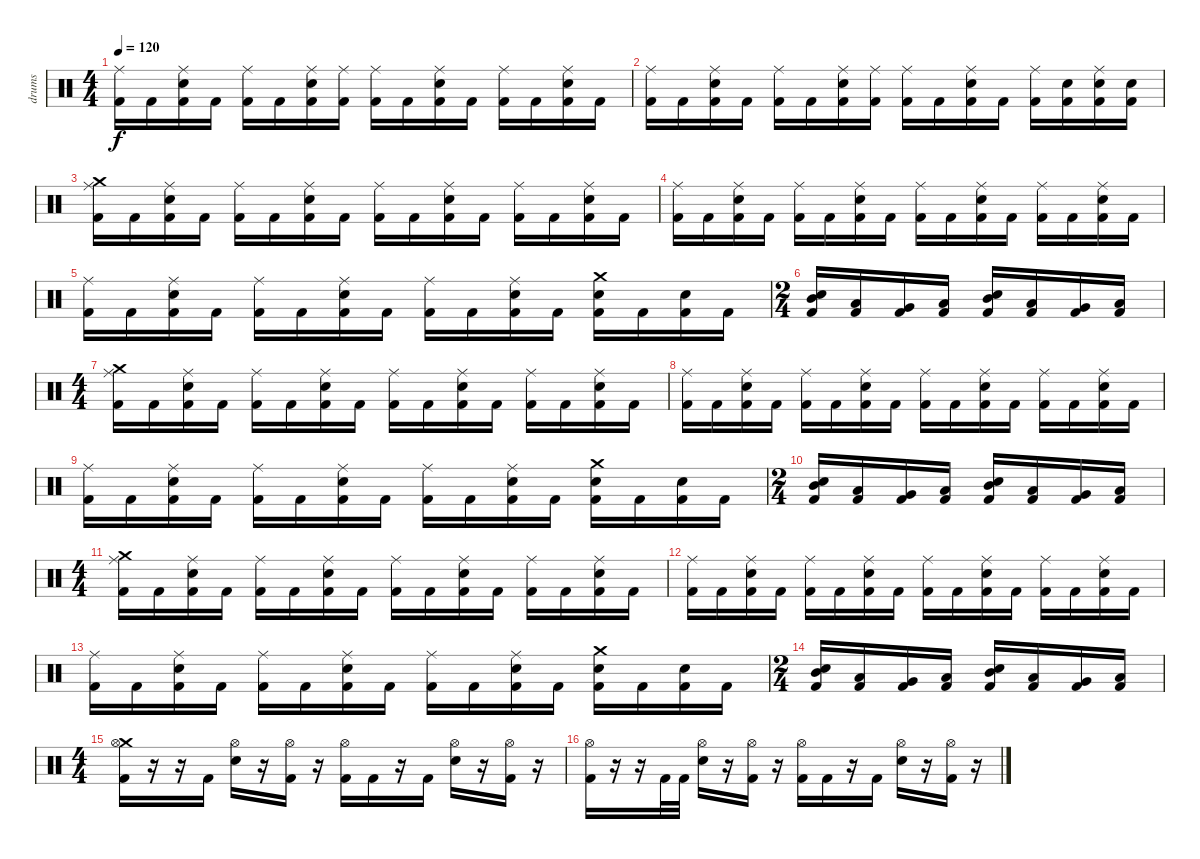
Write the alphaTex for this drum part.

\track ("drums" "drums") {instrument percussion}
\staff {score}
\articulation defaults
\ts (4 4)
\tempo 120
\clef neutral
\ks c
("Ride (middle)" "Kick (hit) 2").16{dy f} "Kick (hit) 2".16 ("Ride (middle)" "Electric Snare (hit)" "Kick (hit) 2").16 "Kick (hit) 2".16 ("Ride (middle)" "Kick (hit) 2").16 "Kick (hit) 2".16 ("Ride (middle)" "Electric Snare (hit)" "Kick (hit) 2").16 ("Ride (middle)" "Kick (hit) 2").16 ("Ride (middle)" "Kick (hit) 2").16 "Kick (hit) 2".16 ("Ride (middle)" "Electric Snare (hit)" "Kick (hit) 2").16 "Kick (hit) 2".16 ("Ride (middle)" "Kick (hit) 2").16 "Kick (hit) 2".16 ("Ride (middle)" "Electric Snare (hit)" "Kick (hit) 2").16 "Kick (hit) 2".16 |
("Ride (middle)" "Kick (hit) 2").16 "Kick (hit) 2".16 ("Ride (middle)" "Electric Snare (hit)" "Kick (hit) 2").16 "Kick (hit) 2".16 ("Ride (middle)" "Kick (hit) 2").16 "Kick (hit) 2".16 ("Ride (middle)" "Electric Snare (hit)" "Kick (hit) 2").16 ("Ride (middle)" "Kick (hit) 2").16 ("Ride (middle)" "Kick (hit) 2").16 "Kick (hit) 2".16 ("Ride (middle)" "Electric Snare (hit)" "Kick (hit) 2").16 "Kick (hit) 2".16 ("Ride (middle)" "Kick (hit) 2").16 ("Electric Snare (hit)" "Kick (hit) 2").16 ("Ride (middle)" "Electric Snare (hit)" "Kick (hit) 2").16 ("Electric Snare (hit)" "Kick (hit) 2").16 |
("Crash medium (hit)" "Ride (middle)" "Kick (hit) 2").16 "Kick (hit) 2".16 ("Ride (middle)" "Electric Snare (hit)" "Kick (hit) 2").16 "Kick (hit) 2".16 ("Ride (middle)" "Kick (hit) 2").16 "Kick (hit) 2".16 ("Ride (middle)" "Electric Snare (hit)" "Kick (hit) 2").16 "Kick (hit) 2".16 ("Ride (middle)" "Kick (hit) 2").16 "Kick (hit) 2".16 ("Ride (middle)" "Electric Snare (hit)" "Kick (hit) 2").16 "Kick (hit) 2".16 ("Ride (middle)" "Kick (hit) 2").16 "Kick (hit) 2".16 ("Ride (middle)" "Electric Snare (hit)" "Kick (hit) 2").16 "Kick (hit) 2".16 |
("Ride (middle)" "Kick (hit) 2").16 "Kick (hit) 2".16 ("Ride (middle)" "Electric Snare (hit)" "Kick (hit) 2").16 "Kick (hit) 2".16 ("Ride (middle)" "Kick (hit) 2").16 "Kick (hit) 2".16 ("Ride (middle)" "Electric Snare (hit)" "Kick (hit) 2").16 "Kick (hit) 2".16 ("Ride (middle)" "Kick (hit) 2").16 "Kick (hit) 2".16 ("Ride (middle)" "Electric Snare (hit)" "Kick (hit) 2").16 "Kick (hit) 2".16 ("Ride (middle)" "Kick (hit) 2").16 "Kick (hit) 2".16 ("Ride (middle)" "Electric Snare (hit)" "Kick (hit) 2").16 "Kick (hit) 2".16 |
("Ride (middle)" "Kick (hit) 2").16 "Kick (hit) 2".16 ("Ride (middle)" "Electric Snare (hit)" "Kick (hit) 2").16 "Kick (hit) 2".16 ("Ride (middle)" "Kick (hit) 2").16 "Kick (hit) 2".16 ("Ride (middle)" "Electric Snare (hit)" "Kick (hit) 2").16 "Kick (hit) 2".16 ("Ride (middle)" "Kick (hit) 2").16 "Kick (hit) 2".16 ("Ride (middle)" "Electric Snare (hit)" "Kick (hit) 2").16 "Kick (hit) 2".16 ("Crash medium (hit)" "Electric Snare (hit)" "Kick (hit) 2").16 "Kick (hit) 2".16 ("Electric Snare (hit)" "Kick (hit) 2").16 "Kick (hit) 2".16 |
\ts (2 4)
("Mid Tom (hit)" "Electric Snare (hit)" "Kick (hit) 2").16 ("Low Tom (hit)" "Kick (hit) 2").16 ("Very Low Tom (hit)" "Kick (hit) 2").16 ("Low Floor Tom (hit)" "Kick (hit) 2").16 ("Mid Tom (hit)" "Electric Snare (hit)" "Kick (hit) 2").16 ("Low Tom (hit)" "Kick (hit) 2").16 ("Very Low Tom (hit)" "Kick (hit) 2").16 ("Low Floor Tom (hit)" "Kick (hit) 2").16 |
\ts (4 4)
("Crash medium (hit)" "Ride (middle)" "Kick (hit) 2").16 "Kick (hit) 2".16 ("Ride (middle)" "Electric Snare (hit)" "Kick (hit) 2").16 "Kick (hit) 2".16 ("Ride (middle)" "Kick (hit) 2").16 "Kick (hit) 2".16 ("Ride (middle)" "Electric Snare (hit)" "Kick (hit) 2").16 "Kick (hit) 2".16 ("Ride (middle)" "Kick (hit) 2").16 "Kick (hit) 2".16 ("Ride (middle)" "Electric Snare (hit)" "Kick (hit) 2").16 "Kick (hit) 2".16 ("Ride (middle)" "Kick (hit) 2").16 "Kick (hit) 2".16 ("Ride (middle)" "Electric Snare (hit)" "Kick (hit) 2").16 "Kick (hit) 2".16 |
("Ride (middle)" "Kick (hit) 2").16 "Kick (hit) 2".16 ("Ride (middle)" "Electric Snare (hit)" "Kick (hit) 2").16 "Kick (hit) 2".16 ("Ride (middle)" "Kick (hit) 2").16 "Kick (hit) 2".16 ("Ride (middle)" "Electric Snare (hit)" "Kick (hit) 2").16 "Kick (hit) 2".16 ("Ride (middle)" "Kick (hit) 2").16 "Kick (hit) 2".16 ("Ride (middle)" "Electric Snare (hit)" "Kick (hit) 2").16 "Kick (hit) 2".16 ("Ride (middle)" "Kick (hit) 2").16 "Kick (hit) 2".16 ("Ride (middle)" "Electric Snare (hit)" "Kick (hit) 2").16 "Kick (hit) 2".16 |
("Ride (middle)" "Kick (hit) 2").16 "Kick (hit) 2".16 ("Ride (middle)" "Electric Snare (hit)" "Kick (hit) 2").16 "Kick (hit) 2".16 ("Ride (middle)" "Kick (hit) 2").16 "Kick (hit) 2".16 ("Ride (middle)" "Electric Snare (hit)" "Kick (hit) 2").16 "Kick (hit) 2".16 ("Ride (middle)" "Kick (hit) 2").16 "Kick (hit) 2".16 ("Ride (middle)" "Electric Snare (hit)" "Kick (hit) 2").16 "Kick (hit) 2".16 ("Crash medium (hit)" "Electric Snare (hit)" "Kick (hit) 2").16 "Kick (hit) 2".16 ("Electric Snare (hit)" "Kick (hit) 2").16 "Kick (hit) 2".16 |
\ts (2 4)
("Mid Tom (hit)" "Electric Snare (hit)" "Kick (hit) 2").16 ("Low Tom (hit)" "Kick (hit) 2").16 ("Very Low Tom (hit)" "Kick (hit) 2").16 ("Low Floor Tom (hit)" "Kick (hit) 2").16 ("Mid Tom (hit)" "Electric Snare (hit)" "Kick (hit) 2").16 ("Low Tom (hit)" "Kick (hit) 2").16 ("Very Low Tom (hit)" "Kick (hit) 2").16 ("Low Floor Tom (hit)" "Kick (hit) 2").16 |
\ts (4 4)
("Crash medium (hit)" "Ride (middle)" "Kick (hit) 2").16 "Kick (hit) 2".16 ("Ride (middle)" "Electric Snare (hit)" "Kick (hit) 2").16 "Kick (hit) 2".16 ("Ride (middle)" "Kick (hit) 2").16 "Kick (hit) 2".16 ("Ride (middle)" "Electric Snare (hit)" "Kick (hit) 2").16 "Kick (hit) 2".16 ("Ride (middle)" "Kick (hit) 2").16 "Kick (hit) 2".16 ("Ride (middle)" "Electric Snare (hit)" "Kick (hit) 2").16 "Kick (hit) 2".16 ("Ride (middle)" "Kick (hit) 2").16 "Kick (hit) 2".16 ("Ride (middle)" "Electric Snare (hit)" "Kick (hit) 2").16 "Kick (hit) 2".16 |
("Ride (middle)" "Kick (hit) 2").16 "Kick (hit) 2".16 ("Ride (middle)" "Electric Snare (hit)" "Kick (hit) 2").16 "Kick (hit) 2".16 ("Ride (middle)" "Kick (hit) 2").16 "Kick (hit) 2".16 ("Ride (middle)" "Electric Snare (hit)" "Kick (hit) 2").16 "Kick (hit) 2".16 ("Ride (middle)" "Kick (hit) 2").16 "Kick (hit) 2".16 ("Ride (middle)" "Electric Snare (hit)" "Kick (hit) 2").16 "Kick (hit) 2".16 ("Ride (middle)" "Kick (hit) 2").16 "Kick (hit) 2".16 ("Ride (middle)" "Electric Snare (hit)" "Kick (hit) 2").16 "Kick (hit) 2".16 |
("Ride (middle)" "Kick (hit) 2").16 "Kick (hit) 2".16 ("Ride (middle)" "Electric Snare (hit)" "Kick (hit) 2").16 "Kick (hit) 2".16 ("Ride (middle)" "Kick (hit) 2").16 "Kick (hit) 2".16 ("Ride (middle)" "Electric Snare (hit)" "Kick (hit) 2").16 "Kick (hit) 2".16 ("Ride (middle)" "Kick (hit) 2").16 "Kick (hit) 2".16 ("Ride (middle)" "Electric Snare (hit)" "Kick (hit) 2").16 "Kick (hit) 2".16 ("Crash medium (hit)" "Electric Snare (hit)" "Kick (hit) 2").16 "Kick (hit) 2".16 ("Electric Snare (hit)" "Kick (hit) 2").16 "Kick (hit) 2".16 |
\ts (2 4)
("Mid Tom (hit)" "Electric Snare (hit)" "Kick (hit) 2").16 ("Low Tom (hit)" "Kick (hit) 2").16 ("Very Low Tom (hit)" "Kick (hit) 2").16 ("Low Floor Tom (hit)" "Kick (hit) 2").16 ("Mid Tom (hit)" "Electric Snare (hit)" "Kick (hit) 2").16 ("Low Tom (hit)" "Kick (hit) 2").16 ("Very Low Tom (hit)" "Kick (hit) 2").16 ("Low Floor Tom (hit)" "Kick (hit) 2").16 |
\ts (4 4)
("Crash medium (hit)" "Hi-Hat (open)" "Kick (hit) 2").16 r.16 r.16 "Kick (hit) 2".16 ("Hi-Hat (open)" "Electric Snare (hit)").16 r.16 ("Hi-Hat (open)" "Kick (hit) 2").16 r.16 ("Hi-Hat (open)" "Kick (hit) 2").16 "Kick (hit) 2".16 r.16 "Kick (hit) 2".16 ("Hi-Hat (open)" "Electric Snare (hit)").16 r.16 ("Hi-Hat (open)" "Kick (hit) 2").16 r.16 |
("Hi-Hat (open)" "Kick (hit) 2").16 r.16 r.16 "Kick (hit) 2".32 "Kick (hit) 2".32 ("Hi-Hat (open)" "Electric Snare (hit)").16 r.16 ("Hi-Hat (open)" "Kick (hit) 2").16 r.16 ("Hi-Hat (open)" "Kick (hit) 2").16 "Kick (hit) 2".16 r.16 "Kick (hit) 2".16 ("Hi-Hat (open)" "Electric Snare (hit)").16 r.16 ("Hi-Hat (open)" "Kick (hit) 2").16 r.16
